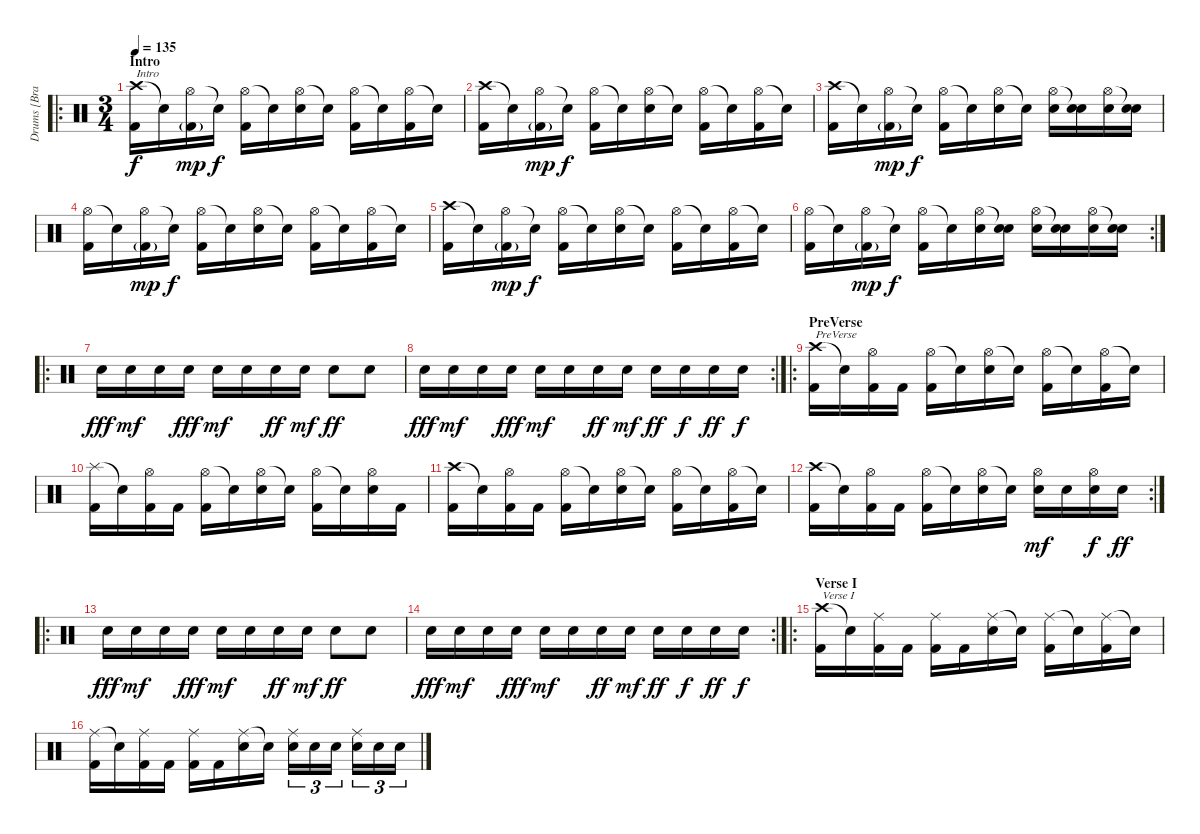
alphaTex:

\track ("Drums [Brann Dailor]" "Drums [Bra") {instrument percussion}
\staff {score}
\articulation defaults
\ro
\ts (3 4)
\section ("" "Intro")
\tempo 135
\clef neutral
\ks c
("Crash high (hit)" "Kick (hit) 2").16{txt "Intro" dy f} "Snare (hit)"{t}.16 ("Hi-Hat (open)" "Kick (hit) 2"{g}).16{dy mp} "Snare (hit)"{t}.16{dy f} ("Hi-Hat (open)" "Kick (hit) 2").16 "Snare (hit)"{t}.16 ("Hi-Hat (open)" "Electric Snare (hit)").16 "Snare (hit)"{t}.16 ("Hi-Hat (open)" "Kick (hit) 2").16 "Snare (hit)"{t}.16 ("Hi-Hat (open)" "Kick (hit) 2").16 "Snare (hit)"{t}.16 |
("Crash high (hit)" "Kick (hit) 2").16 "Snare (hit)"{t}.16 ("Hi-Hat (open)" "Kick (hit) 2"{g}).16{dy mp} "Snare (hit)"{t}.16{dy f} ("Hi-Hat (open)" "Kick (hit) 2").16 "Snare (hit)"{t}.16 ("Hi-Hat (open)" "Electric Snare (hit)").16 "Snare (hit)"{t}.16 ("Hi-Hat (open)" "Kick (hit) 2").16 "Snare (hit)"{t}.16 ("Hi-Hat (open)" "Kick (hit) 2").16 "Snare (hit)"{t}.16 |
("Crash high (hit)" "Kick (hit) 2").16 "Snare (hit)"{t}.16 ("Hi-Hat (open)" "Kick (hit) 2"{g}).16{dy mp} "Snare (hit)"{t}.16{dy f} ("Hi-Hat (open)" "Kick (hit) 2").16 "Snare (hit)"{t}.16 ("Hi-Hat (open)" "Electric Snare (hit)").16 "Snare (hit)"{t}.16 ("Hi-Hat (open)" "Electric Snare (hit)").16 ("Snare (hit)"{t} "Electric Snare (hit)").16 ("Hi-Hat (open)" "Electric Snare (hit)").16 ("Snare (hit)"{t} "Electric Snare (hit)").16 |
("Hi-Hat (open)" "Kick (hit) 2").16 "Snare (hit)"{t}.16 ("Hi-Hat (open)" "Kick (hit) 2"{g}).16{dy mp} "Snare (hit)"{t}.16{dy f} ("Hi-Hat (open)" "Kick (hit) 2").16 "Snare (hit)"{t}.16 ("Hi-Hat (open)" "Electric Snare (hit)").16 "Snare (hit)"{t}.16 ("Hi-Hat (open)" "Kick (hit) 2").16 "Snare (hit)"{t}.16 ("Hi-Hat (open)" "Kick (hit) 2").16 "Snare (hit)"{t}.16 |
("Crash high (hit)" "Kick (hit) 2").16 "Snare (hit)"{t}.16 ("Hi-Hat (open)" "Kick (hit) 2"{g}).16{dy mp} "Snare (hit)"{t}.16{dy f} ("Hi-Hat (open)" "Kick (hit) 2").16 "Snare (hit)"{t}.16 ("Hi-Hat (open)" "Electric Snare (hit)").16 "Snare (hit)"{t}.16 ("Hi-Hat (open)" "Kick (hit) 2").16 "Snare (hit)"{t}.16 ("Hi-Hat (open)" "Kick (hit) 2").16 "Snare (hit)"{t}.16 |
\rc 2
("Hi-Hat (open)" "Kick (hit) 2").16 "Snare (hit)"{t}.16 ("Hi-Hat (open)" "Kick (hit) 2"{g}).16{dy mp} "Snare (hit)"{t}.16{dy f} ("Hi-Hat (open)" "Kick (hit) 2").16 "Snare (hit)"{t}.16 ("Hi-Hat (open)" "Electric Snare (hit)").16 ("Snare (hit)"{t} "Electric Snare (hit)").16 ("Hi-Hat (open)" "Electric Snare (hit)").16 ("Snare (hit)"{t} "Electric Snare (hit)").16 ("Hi-Hat (open)" "Electric Snare (hit)").16 ("Snare (hit)"{t} "Electric Snare (hit)").16 |
\ro "Electric Snare (hit)".16{dy fff} "Electric Snare (hit)".16{dy mf} "Electric Snare (hit)".16 "Electric Snare (hit)".16{dy fff} "Electric Snare (hit)".16{dy mf} "Electric Snare (hit)".16 "Electric Snare (hit)".16{dy ff} "Electric Snare (hit)".16{dy mf} "Electric Snare (hit)".8{dy ff} "Electric Snare (hit)".8
|
\rc 2 "Electric Snare (hit)".16{dy fff} "Electric Snare (hit)".16{dy mf} "Electric Snare (hit)".16 "Electric Snare (hit)".16{dy fff} "Electric Snare (hit)".16{dy mf} "Electric Snare (hit)".16 "Electric Snare (hit)".16{dy ff} "Electric Snare (hit)".16{dy mf} "Electric Snare (hit)".16{dy ff} "Electric Snare (hit)".16{dy f} "Electric Snare (hit)".16{dy ff} "Electric Snare (hit)".16{dy f}
|
\ro
\section ("" "PreVerse")
("Crash high (hit)" "Kick (hit) 2").16{txt "PreVerse"} "Snare (hit)"{t}.16 ("Hi-Hat (open)" "Kick (hit) 2").16 "Kick (hit) 2".16 ("Hi-Hat (open)" "Kick (hit) 2").16 "Snare (hit)"{t}.16 ("Hi-Hat (open)" "Electric Snare (hit)").16 "Snare (hit)"{t}.16 ("Hi-Hat (open)" "Kick (hit) 2").16 "Snare (hit)"{t}.16 ("Hi-Hat (open)" "Kick (hit) 2").16 "Snare (hit)"{t}.16 |
("Splash (hit)" "Kick (hit) 2").16 "Snare (hit)"{t}.16 ("Hi-Hat (open)" "Kick (hit) 2").16 "Kick (hit) 2".16 ("Hi-Hat (open)" "Kick (hit) 2").16 "Snare (hit)"{t}.16 ("Hi-Hat (open)" "Electric Snare (hit)").16 "Snare (hit)"{t}.16 ("Hi-Hat (open)" "Kick (hit) 2").16 "Snare (hit)"{t}.16 ("Hi-Hat (open)" "Electric Snare (hit)").16 "Kick (hit) 2".16 |
("Crash high (hit)" "Kick (hit) 2").16 "Snare (hit)"{t}.16 ("Hi-Hat (open)" "Kick (hit) 2").16 "Kick (hit) 2".16 ("Hi-Hat (open)" "Kick (hit) 2").16 "Snare (hit)"{t}.16 ("Hi-Hat (open)" "Electric Snare (hit)").16 "Snare (hit)"{t}.16 ("Hi-Hat (open)" "Kick (hit) 2").16 "Snare (hit)"{t}.16 ("Hi-Hat (open)" "Kick (hit) 2").16 "Snare (hit)"{t}.16 |
\rc 2
("Crash high (hit)" "Kick (hit) 2").16 "Snare (hit)"{t}.16 ("Hi-Hat (open)" "Kick (hit) 2").16 "Kick (hit) 2".16 ("Hi-Hat (open)" "Kick (hit) 2").16 "Snare (hit)"{t}.16 ("Hi-Hat (open)" "Electric Snare (hit)").16 "Snare (hit)"{t}.16 ("Hi-Hat (open)" "Electric Snare (hit)").16{dy mf} "Electric Snare (hit)".16 ("Hi-Hat (open)" "Electric Snare (hit)").16{dy f} "Electric Snare (hit)".16{dy ff} |
\ro "Electric Snare (hit)".16{dy fff} "Electric Snare (hit)".16{dy mf} "Electric Snare (hit)".16 "Electric Snare (hit)".16{dy fff} "Electric Snare (hit)".16{dy mf} "Electric Snare (hit)".16 "Electric Snare (hit)".16{dy ff} "Electric Snare (hit)".16{dy mf} "Electric Snare (hit)".8{dy ff} "Electric Snare (hit)".8
|
\rc 2 "Electric Snare (hit)".16{dy fff} "Electric Snare (hit)".16{dy mf} "Electric Snare (hit)".16 "Electric Snare (hit)".16{dy fff} "Electric Snare (hit)".16{dy mf} "Electric Snare (hit)".16 "Electric Snare (hit)".16{dy ff} "Electric Snare (hit)".16{dy mf} "Electric Snare (hit)".16{dy ff} "Electric Snare (hit)".16{dy f} "Electric Snare (hit)".16{dy ff} "Electric Snare (hit)".16{dy f}
|
\ro
\section ("" "Verse I")
("Crash high (hit)" "Kick (hit) 2").16{txt "Verse I"} "Snare (hit)"{t}.16 ("Ride (middle)" "Kick (hit) 2").16 "Kick (hit) 2".16 ("Ride (middle)" "Kick (hit) 2").16 "Kick (hit) 2".16 ("Ride (middle)" "Electric Snare (hit)").16 "Snare (hit)"{t}.16 ("Ride (middle)" "Kick (hit) 2").16 "Snare (hit)"{t}.16 ("Ride (middle)" "Kick (hit) 2").16 "Snare (hit)"{t}.16 |
("Ride (middle)" "Kick (hit) 2").16 "Snare (hit)"{t}.16 ("Ride (middle)" "Kick (hit) 2").16 "Kick (hit) 2".16 ("Ride (middle)" "Kick (hit) 2").16 "Kick (hit) 2".16 ("Ride (middle)" "Electric Snare (hit)").16 "Snare (hit)"{t}.16 ("Ride (middle)" "Electric Snare (hit)").16{tu (3 2)} "Electric Snare (hit)".16{tu (3 2)} "Electric Snare (hit)".16{tu (3 2)} ("Ride (middle)" "Electric Snare (hit)").16{tu (3 2)} "Electric Snare (hit)".16{tu (3 2)} "Electric Snare (hit)".16{tu (3 2)}
